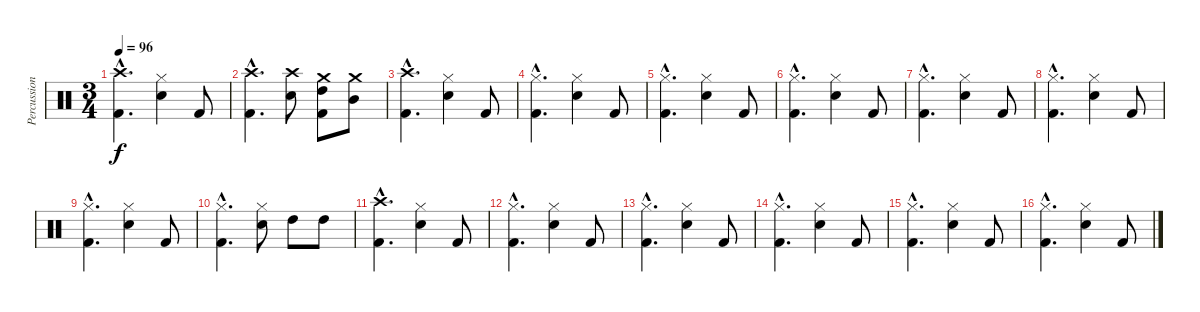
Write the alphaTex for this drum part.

\track ("Percussions" "Percussion") {instrument percussion}
\staff {score}
\articulation defaults
\ts (3 4)
\tempo 96
\clef neutral
\ks c
("Crash high (hit)"{hac} "Kick (hit) 2"{hac}).4{d dy f} ("Hi-Hat (closed)" "Snare (hit) 2").4 "Kick (hit) 2".8 |
("Crash high (hit)"{hac} "Kick (hit) 2"{hac}).4{d} ("Crash high (hit)" "Snare (hit) 2").8 ("Crash medium (hit)" "High Tom (hit)" "Kick (hit) 2").8 ("Crash medium (hit)" "Mid Tom (hit)").8 |
("Crash high (hit)"{hac} "Kick (hit) 2"{hac}).4{d} ("Hi-Hat (closed)" "Snare (hit) 2").4 "Kick (hit) 2".8 |
("Hi-Hat (closed)"{hac} "Kick (hit) 2"{hac}).4{d} ("Hi-Hat (closed)" "Snare (hit) 2").4 "Kick (hit) 2".8 |
("Hi-Hat (closed)"{hac} "Kick (hit) 2"{hac}).4{d} ("Hi-Hat (closed)" "Snare (hit) 2").4 "Kick (hit) 2".8 |
("Hi-Hat (closed)"{hac} "Kick (hit) 2"{hac}).4{d} ("Hi-Hat (closed)" "Snare (hit) 2").4 "Kick (hit) 2".8 |
("Hi-Hat (closed)"{hac} "Kick (hit) 2"{hac}).4{d} ("Hi-Hat (closed)" "Snare (hit) 2").4 "Kick (hit) 2".8 |
("Hi-Hat (closed)"{hac} "Kick (hit) 2"{hac}).4{d} ("Hi-Hat (closed)" "Snare (hit) 2").4 "Kick (hit) 2".8 |
("Hi-Hat (closed)"{hac} "Kick (hit) 2"{hac}).4{d} ("Hi-Hat (closed)" "Snare (hit) 2").4 "Kick (hit) 2".8 |
("Hi-Hat (closed)"{hac} "Kick (hit) 2"{hac}).4{d} ("Hi-Hat (closed)" "Snare (hit) 2").8 "High Tom (hit)".8 "High Tom (hit)".8 |
("Crash high (hit)"{hac} "Kick (hit) 2"{hac}).4{d} ("Hi-Hat (closed)" "Snare (hit) 2").4 "Kick (hit) 2".8 |
("Hi-Hat (closed)"{hac} "Kick (hit) 2"{hac}).4{d} ("Hi-Hat (closed)" "Snare (hit) 2").4 "Kick (hit) 2".8 |
("Hi-Hat (closed)"{hac} "Kick (hit) 2"{hac}).4{d} ("Hi-Hat (closed)" "Snare (hit) 2").4 "Kick (hit) 2".8 |
("Hi-Hat (closed)"{hac} "Kick (hit) 2"{hac}).4{d} ("Hi-Hat (closed)" "Snare (hit) 2").4 "Kick (hit) 2".8 |
("Hi-Hat (closed)"{hac} "Kick (hit) 2"{hac}).4{d} ("Hi-Hat (closed)" "Snare (hit) 2").4 "Kick (hit) 2".8 |
("Hi-Hat (closed)"{hac} "Kick (hit) 2"{hac}).4{d} ("Hi-Hat (closed)" "Snare (hit) 2").4 "Kick (hit) 2".8
